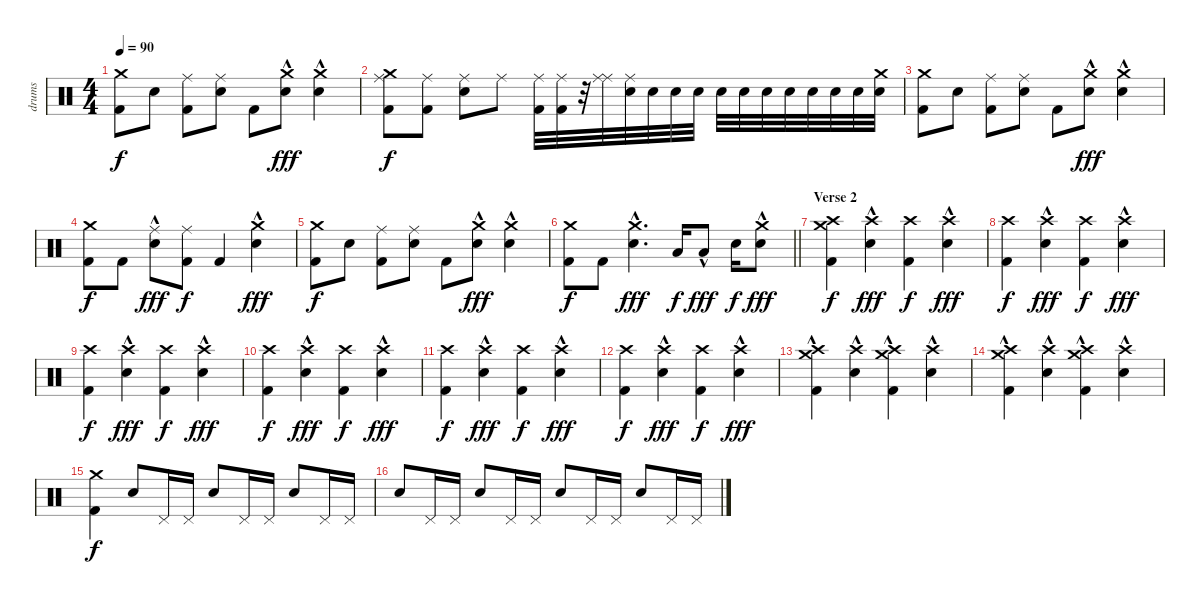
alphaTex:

\track ("drums" "drums") {instrument percussion}
\staff {score}
\articulation defaults
\ts (4 4)
\tempo 90
\clef neutral
\ks c
("Kick (hit) 2" "Crash medium (hit)").8{dy f} "Electric Snare (hit)".8 ("Kick (hit) 2" "Ride (middle)").8 ("Electric Snare (hit)" "Ride (middle)").8 "Kick (hit) 2".8 ("Electric Snare (hit)"{hac} "Crash medium (hit)"{hac}).8{dy fff} ("Electric Snare (hit)"{hac} "Crash medium (hit)"{hac}).4 |
("Crash medium (hit)" "Kick (hit) 2" "Ride (middle)").8{dy f} ("Kick (hit) 2" "Ride (middle)").8 ("Electric Snare (hit)" "Ride (middle)").8 "Ride (middle)".8 ("Kick (hit) 2" "Ride (middle)").32 ("Kick (hit) 2" "Ride (middle)").32 r.32 ("Ride (middle)" "Ride (middle)").32 ("Electric Snare (hit)" "Ride (middle)").32 "Electric Snare (hit)".32 "Electric Snare (hit)".32 "Electric Snare (hit)".32 "Electric Snare (hit)".32 "Electric Snare (hit)".32 "Electric Snare (hit)".32 "Electric Snare (hit)".32 "Electric Snare (hit)".32 "Electric Snare (hit)".32 "Electric Snare (hit)".32 ("Electric Snare (hit)" "Crash medium (hit)").32 |
("Kick (hit) 2" "Crash medium (hit)").8 "Electric Snare (hit)".8 ("Kick (hit) 2" "Ride (middle)").8 ("Electric Snare (hit)" "Ride (middle)").8 "Kick (hit) 2".8 ("Electric Snare (hit)"{hac} "Crash medium (hit)"{hac}).8{dy fff} ("Electric Snare (hit)"{hac} "Crash medium (hit)"{hac}).4 |
("Kick (hit) 2" "Crash medium (hit)").8{dy f} "Kick (hit) 2".8 ("Electric Snare (hit)"{hac} "Ride (middle)").8{dy fff} ("Kick (hit) 2" "Ride (middle)").8{dy f} "Kick (hit) 2".4 ("Electric Snare (hit)"{hac} "Crash medium (hit)"{hac}).4{dy fff} |
("Kick (hit) 2" "Crash medium (hit)").8{dy f} "Electric Snare (hit)".8 ("Kick (hit) 2" "Ride (middle)").8 ("Electric Snare (hit)" "Ride (middle)").8 "Kick (hit) 2".8 ("Electric Snare (hit)"{hac} "Crash medium (hit)"{hac}).8{dy fff} ("Electric Snare (hit)"{hac} "Crash medium (hit)"{hac}).4 |
\barLineRight lightlight
("Kick (hit) 2" "Crash medium (hit)").8{dy f} "Kick (hit) 2".8 ("Electric Snare (hit)" "Crash medium (hit)"{hac}).4{d dy fff} "Low Tom (hit)".16{dy f} "Low Tom (hit)"{hac}.8{dy fff} "Electric Snare (hit)".16{dy f} ("Electric Snare (hit)"{hac} "Crash medium (hit)").8{dy fff} |
\section ("" "Verse 2")
("Kick (hit) 2" "Crash medium (hit)" "Crash high (hit)").4{dy f} ("Electric Snare (hit)"{hac} "Crash high (hit)").4{dy fff} ("Kick (hit) 2" "Crash high (hit)").4{dy f} ("Electric Snare (hit)"{hac} "Crash high (hit)").4{dy fff} |
("Kick (hit) 2" "Crash high (hit)").4{dy f} ("Electric Snare (hit)"{hac} "Crash high (hit)").4{dy fff} ("Kick (hit) 2" "Crash high (hit)").4{dy f} ("Electric Snare (hit)"{hac} "Crash high (hit)").4{dy fff} |
("Kick (hit) 2" "Crash high (hit)").4{dy f} ("Electric Snare (hit)"{hac} "Crash high (hit)").4{dy fff} ("Kick (hit) 2" "Crash high (hit)").4{dy f} ("Electric Snare (hit)"{hac} "Crash high (hit)").4{dy fff} |
("Kick (hit) 2" "Crash high (hit)").4{dy f} ("Electric Snare (hit)"{hac} "Crash high (hit)").4{dy fff} ("Kick (hit) 2" "Crash high (hit)").4{dy f} ("Electric Snare (hit)"{hac} "Crash high (hit)").4{dy fff} |
("Kick (hit) 2" "Crash high (hit)").4{dy f} ("Electric Snare (hit)"{hac} "Crash high (hit)").4{dy fff} ("Kick (hit) 2" "Crash high (hit)").4{dy f} ("Electric Snare (hit)"{hac} "Crash high (hit)").4{dy fff} |
("Kick (hit) 2" "Crash high (hit)").4{dy f} ("Electric Snare (hit)"{hac} "Crash high (hit)").4{dy fff} ("Kick (hit) 2" "Crash high (hit)").4{dy f} ("Electric Snare (hit)"{hac} "Crash high (hit)").4{dy fff} |
("Kick (hit) 2" "Crash high (hit)"{hac} "Crash medium (hit)"{hac}).4 ("Electric Snare (hit)"{hac} "Crash high (hit)").4 ("Kick (hit) 2" "Crash high (hit)"{hac} "Crash medium (hit)"{hac}).4 ("Electric Snare (hit)"{hac} "Crash high (hit)").4 |
("Kick (hit) 2" "Crash high (hit)"{hac} "Crash medium (hit)"{hac}).4 ("Electric Snare (hit)"{hac} "Crash high (hit)").4 ("Kick (hit) 2" "Crash high (hit)"{hac} "Crash medium (hit)"{hac}).4 ("Electric Snare (hit)"{hac} "Crash high (hit)").4 |
("Kick (hit) 2" "Crash medium (hit)").4{dy f} "Electric Snare (hit)".8 "Pedal Hi-Hat (hit)".16 "Pedal Hi-Hat (hit)".16 "Electric Snare (hit)".8 "Pedal Hi-Hat (hit)".16 "Pedal Hi-Hat (hit)".16 "Electric Snare (hit)".8 "Pedal Hi-Hat (hit)".16 "Pedal Hi-Hat (hit)".16 |
"Electric Snare (hit)".8 "Pedal Hi-Hat (hit)".16 "Pedal Hi-Hat (hit)".16 "Electric Snare (hit)".8 "Pedal Hi-Hat (hit)".16 "Pedal Hi-Hat (hit)".16 "Electric Snare (hit)".8 "Pedal Hi-Hat (hit)".16 "Pedal Hi-Hat (hit)".16 "Electric Snare (hit)".8 "Pedal Hi-Hat (hit)".16 "Pedal Hi-Hat (hit)".16
